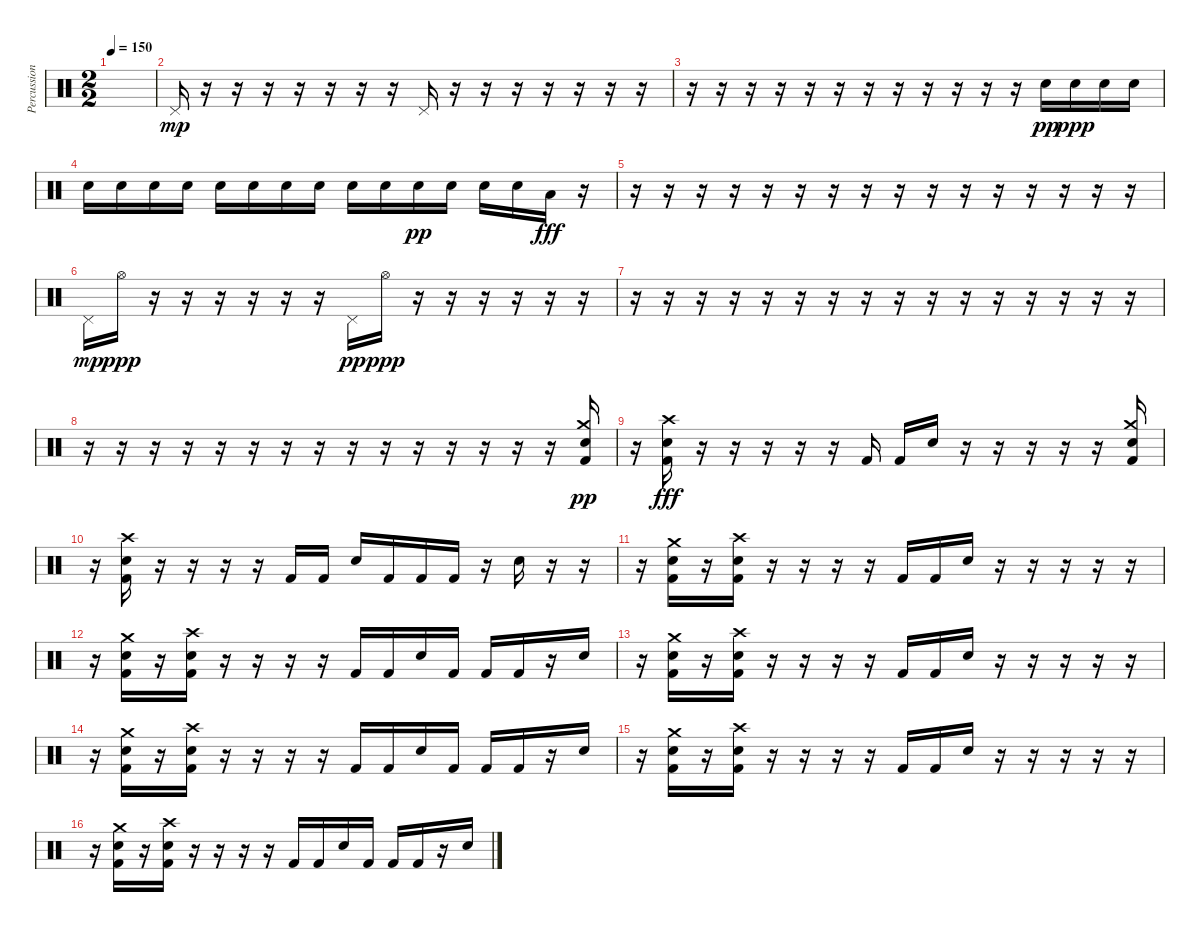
\track ("Percussion" "Percussion") {instrument percussion}
\staff {score}
\articulation defaults
\ts (2 2)
\tempo 150
\clef neutral
\ks c
|
"Pedal Hi-Hat (hit)".16{dy mp} r.16 r.16 r.16 r.16 r.16 r.16 r.16 "Pedal Hi-Hat (hit)".16 r.16 r.16 r.16 r.16 r.16 r.16 r.16 |
r.16 r.16 r.16 r.16 r.16 r.16 r.16 r.16 r.16 r.16 r.16 r.16 "Snare (hit) 2".16{dy pp} "Snare (hit) 2".16{dy ppp} "Snare (hit) 2".16 "Snare (hit) 2".16 |
"Snare (hit) 2".16 "Snare (hit) 2".16 "Snare (hit) 2".16 "Snare (hit) 2".16 "Snare (hit) 2".16 "Snare (hit) 2".16 "Snare (hit) 2".16 "Snare (hit) 2".16 "Snare (hit) 2".16 "Snare (hit) 2".16 "Snare (hit) 2".16{dy pp} "Snare (hit) 2".16 "Snare (hit) 2".16 "Snare (hit) 2".16 "Low Floor Tom (hit)".16{dy fff} r.16 |
r.16 r.16 r.16 r.16 r.16 r.16 r.16 r.16 r.16 r.16 r.16 r.16 r.16 r.16 r.16 r.16 |
"Pedal Hi-Hat (hit)".16{dy mp} "Hi-Hat (open)".16{dy ppp} r.16 r.16 r.16 r.16 r.16 r.16 "Pedal Hi-Hat (hit)".16{dy pp} "Hi-Hat (open)".16{dy ppp} r.16 r.16 r.16 r.16 r.16 r.16 |
r.16 r.16 r.16 r.16 r.16 r.16 r.16 r.16 r.16 r.16 r.16 r.16 r.16 r.16 r.16 r.16 |
r.16 r.16 r.16 r.16 r.16 r.16 r.16 r.16 r.16 r.16 r.16 r.16 r.16 r.16 r.16 ("Crash medium (hit)" "Snare (hit) 2" "Kick (hit) 2").16{dy pp} |
r.16 ("Crash high (hit)" "Snare (hit) 2" "Kick (hit) 2").16{dy fff} r.16 r.16 r.16 r.16 r.16 "Kick (hit) 2".16 "Kick (hit) 2".16 "Snare (hit) 2".16 r.16 r.16 r.16 r.16 r.16 ("Crash medium (hit)" "Snare (hit) 2" "Kick (hit) 2").16 |
r.16 ("Crash high (hit)" "Snare (hit) 2" "Kick (hit) 2").16 r.16 r.16 r.16 r.16 "Kick (hit) 2".16 "Kick (hit) 2".16 "Snare (hit) 2".16 "Kick (hit) 2".16 "Kick (hit) 2".16 "Kick (hit) 2".16 r.16 "Snare (hit) 2".16 r.16 r.16 |
r.16 ("Crash medium (hit)" "Snare (hit) 2" "Kick (hit) 2").16 r.16 ("Crash high (hit)" "Snare (hit) 2" "Kick (hit) 2").16 r.16 r.16 r.16 r.16 "Kick (hit) 2".16 "Kick (hit) 2".16 "Snare (hit) 2".16 r.16 r.16 r.16 r.16 r.16 |
r.16 ("Crash medium (hit)" "Snare (hit) 2" "Kick (hit) 2").16 r.16 ("Crash high (hit)" "Snare (hit) 2" "Kick (hit) 2").16 r.16 r.16 r.16 r.16 "Kick (hit) 2".16 "Kick (hit) 2".16 "Snare (hit) 2".16 "Kick (hit) 2".16 "Kick (hit) 2".16 "Kick (hit) 2".16 r.16 "Snare (hit) 2".16 |
r.16 ("Crash medium (hit)" "Snare (hit) 2" "Kick (hit) 2").16 r.16 ("Crash high (hit)" "Snare (hit) 2" "Kick (hit) 2").16 r.16 r.16 r.16 r.16 "Kick (hit) 2".16 "Kick (hit) 2".16 "Snare (hit) 2".16 r.16 r.16 r.16 r.16 r.16 |
r.16 ("Crash medium (hit)" "Snare (hit) 2" "Kick (hit) 2").16 r.16 ("Crash high (hit)" "Snare (hit) 2" "Kick (hit) 2").16 r.16 r.16 r.16 r.16 "Kick (hit) 2".16 "Kick (hit) 2".16 "Snare (hit) 2".16 "Kick (hit) 2".16 "Kick (hit) 2".16 "Kick (hit) 2".16 r.16 "Snare (hit) 2".16 |
r.16 ("Crash medium (hit)" "Snare (hit) 2" "Kick (hit) 2").16 r.16 ("Crash high (hit)" "Snare (hit) 2" "Kick (hit) 2").16 r.16 r.16 r.16 r.16 "Kick (hit) 2".16 "Kick (hit) 2".16 "Snare (hit) 2".16 r.16 r.16 r.16 r.16 r.16 |
r.16 ("Crash medium (hit)" "Snare (hit) 2" "Kick (hit) 2").16 r.16 ("Crash high (hit)" "Snare (hit) 2" "Kick (hit) 2").16 r.16 r.16 r.16 r.16 "Kick (hit) 2".16 "Kick (hit) 2".16 "Snare (hit) 2".16 "Kick (hit) 2".16 "Kick (hit) 2".16 "Kick (hit) 2".16 r.16 "Snare (hit) 2".16
